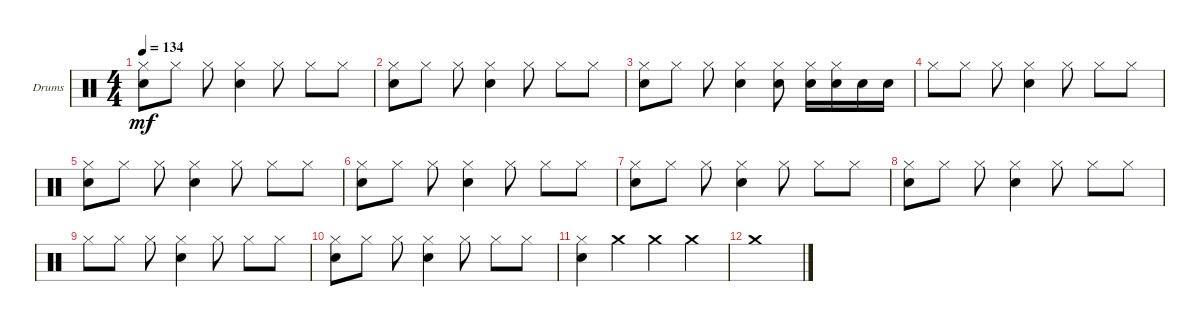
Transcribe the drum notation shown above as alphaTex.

\defaultSystemsLayout 4
\bracketExtendMode groupsimilarinstruments
\firstSystemTrackNameOrientation horizontal
\otherSystemsTrackNameOrientation horizontal
\track ("Drumkit" "Drums") {instrument percussion}
\staff {score}
\articulation defaults
\ts (4 4)
\tempo 134
\clef neutral
\ks c
("Hi-Hat (closed)" "Snare (hit) 2").8{dy mf} "Hi-Hat (closed)".8 "Hi-Hat (closed)".8 ("Hi-Hat (closed)" "Snare (hit) 2").4 "Hi-Hat (closed)".8 "Hi-Hat (closed)".8 "Hi-Hat (closed)".8 |
("Hi-Hat (closed)" "Snare (hit) 2").8 "Hi-Hat (closed)".8 "Hi-Hat (closed)".8 ("Hi-Hat (closed)" "Snare (hit) 2").4 "Hi-Hat (closed)".8 "Hi-Hat (closed)".8 "Hi-Hat (closed)".8 |
("Hi-Hat (closed)" "Snare (hit) 2").8 "Hi-Hat (closed)".8 "Hi-Hat (closed)".8 ("Hi-Hat (closed)" "Snare (hit) 2").4 ("Hi-Hat (closed)" "Snare (hit) 2").8 ("Hi-Hat (closed)" "Snare (hit) 2").16 ("Hi-Hat (closed)" "Snare (hit) 2").16 "Snare (hit) 2".16 "Snare (hit) 2".16 |
"Hi-Hat (closed)".8 "Hi-Hat (closed)".8 "Hi-Hat (closed)".8 ("Hi-Hat (closed)" "Snare (hit) 2").4 "Hi-Hat (closed)".8 "Hi-Hat (closed)".8 "Hi-Hat (closed)".8 |
("Hi-Hat (closed)" "Snare (hit) 2").8 "Hi-Hat (closed)".8 "Hi-Hat (closed)".8 ("Hi-Hat (closed)" "Snare (hit) 2").4 "Hi-Hat (closed)".8 "Hi-Hat (closed)".8 "Hi-Hat (closed)".8 |
("Hi-Hat (closed)" "Snare (hit) 2").8 "Hi-Hat (closed)".8 "Hi-Hat (closed)".8 ("Hi-Hat (closed)" "Snare (hit) 2").4 "Hi-Hat (closed)".8 "Hi-Hat (closed)".8 "Hi-Hat (closed)".8 |
("Hi-Hat (closed)" "Snare (hit) 2").8 "Hi-Hat (closed)".8 "Hi-Hat (closed)".8 ("Hi-Hat (closed)" "Snare (hit) 2").4 "Hi-Hat (closed)".8 "Hi-Hat (closed)".8 "Hi-Hat (closed)".8 |
("Hi-Hat (closed)" "Snare (hit) 2").8 "Hi-Hat (closed)".8 "Hi-Hat (closed)".8 ("Hi-Hat (closed)" "Snare (hit) 2").4 "Hi-Hat (closed)".8 "Hi-Hat (closed)".8 "Hi-Hat (closed)".8 |
"Hi-Hat (closed)".8 "Hi-Hat (closed)".8 "Hi-Hat (closed)".8 ("Hi-Hat (closed)" "Snare (hit) 2").4 "Hi-Hat (closed)".8 "Hi-Hat (closed)".8 "Hi-Hat (closed)".8 |
("Hi-Hat (closed)" "Snare (hit) 2").8 "Hi-Hat (closed)".8 "Hi-Hat (closed)".8 ("Hi-Hat (closed)" "Snare (hit) 2").4 "Hi-Hat (closed)".8 "Hi-Hat (closed)".8 "Hi-Hat (closed)".8 |
("Hi-Hat (closed)" "Snare (hit) 2").4 "Crash medium (hit)".4 "Crash medium (hit)".4 "Crash medium (hit)".4 |
"Crash medium (hit)".1
